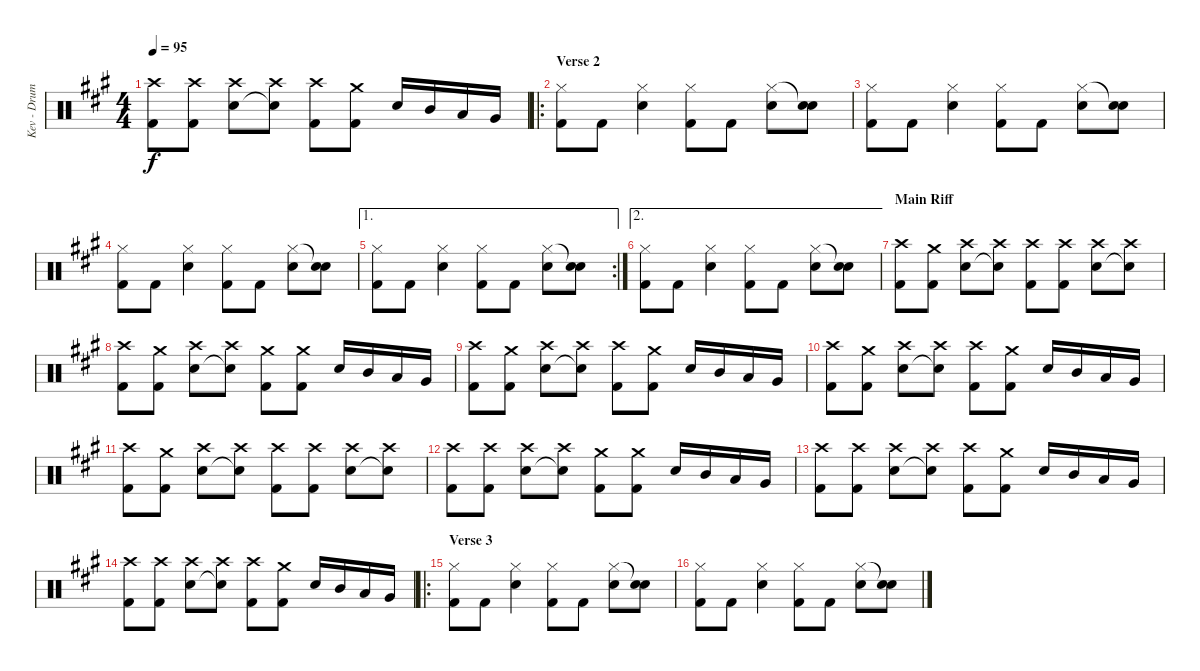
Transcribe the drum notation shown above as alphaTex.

\track ("Kev - Drums" "Kev - Drum") {instrument percussion}
\staff {score}
\articulation defaults
\ts (4 4)
\tempo 95
\clef neutral
\ks a
("Crash high (hit)" "Kick (hit) 2").8{dy f} ("Crash high (hit)" "Kick (hit) 2").8 ("Crash high (hit)" "Snare (hit) 2").8 ("Crash high (hit)" "Snare (hit)"{t}).8 ("Crash high (hit)" "Kick (hit) 2").8 ("Crash medium (hit)" "Kick (hit) 2").8 "Snare (hit) 2".16 "Mid Tom (hit)".16 "Low Tom (hit)".16 "Very Low Tom (hit)".16 |
\ro
\section ("" "Verse 2")
("Hi-Hat (closed)" "Kick (hit) 2").8 "Kick (hit) 2".8 ("Hi-Hat (closed)" "Snare (hit) 2").4 ("Hi-Hat (closed)" "Kick (hit) 2").8 "Kick (hit) 2".8 ("Hi-Hat (closed)" "Snare (hit) 2").8 ("Snare (hit)"{t} "Snare (hit) 2").8 |
("Hi-Hat (closed)" "Kick (hit) 2").8 "Kick (hit) 2".8 ("Hi-Hat (closed)" "Snare (hit) 2").4 ("Hi-Hat (closed)" "Kick (hit) 2").8 "Kick (hit) 2".8 ("Hi-Hat (closed)" "Snare (hit) 2").8 ("Snare (hit)"{t} "Snare (hit) 2").8 |
("Hi-Hat (closed)" "Kick (hit) 2").8 "Kick (hit) 2".8 ("Hi-Hat (closed)" "Snare (hit) 2").4 ("Hi-Hat (closed)" "Kick (hit) 2").8 "Kick (hit) 2".8 ("Hi-Hat (closed)" "Snare (hit) 2").8 ("Snare (hit)"{t} "Snare (hit) 2").8 |
\ae 1
\rc 2
("Hi-Hat (closed)" "Kick (hit) 2").8 "Kick (hit) 2".8 ("Hi-Hat (closed)" "Snare (hit) 2").4 ("Hi-Hat (closed)" "Kick (hit) 2").8 "Kick (hit) 2".8 ("Hi-Hat (closed)" "Snare (hit) 2").8 ("Snare (hit)"{t} "Snare (hit) 2").8 |
\ae 2
("Hi-Hat (closed)" "Kick (hit) 2").8 "Kick (hit) 2".8 ("Hi-Hat (closed)" "Snare (hit) 2").4 ("Hi-Hat (closed)" "Kick (hit) 2").8 "Kick (hit) 2".8 ("Hi-Hat (closed)" "Snare (hit) 2").8 ("Snare (hit)"{t} "Snare (hit) 2").8 |
\section ("" "Main Riff")
("Crash high (hit)" "Kick (hit) 2").8 ("Crash medium (hit)" "Kick (hit) 2").8 ("Crash high (hit)" "Snare (hit) 2").8 ("Crash high (hit)" "Snare (hit)"{t}).8 ("Crash high (hit)" "Kick (hit) 2").8 ("Crash high (hit)" "Kick (hit) 2").8 ("Crash high (hit)" "Snare (hit) 2").8 ("Crash high (hit)" "Snare (hit)"{t}).8 |
("Crash high (hit)" "Kick (hit) 2").8 ("Crash medium (hit)" "Kick (hit) 2").8 ("Crash high (hit)" "Snare (hit) 2").8 ("Crash high (hit)" "Snare (hit)"{t}).8 ("Crash medium (hit)" "Kick (hit) 2").8 ("Crash medium (hit)" "Kick (hit) 2").8 "Snare (hit) 2".16 "Mid Tom (hit)".16 "Low Tom (hit)".16 "Very Low Tom (hit)".16 |
("Crash high (hit)" "Kick (hit) 2").8 ("Crash medium (hit)" "Kick (hit) 2").8 ("Crash high (hit)" "Snare (hit) 2").8 ("Crash high (hit)" "Snare (hit)"{t}).8 ("Crash high (hit)" "Kick (hit) 2").8 ("Crash medium (hit)" "Kick (hit) 2").8 "Snare (hit) 2".16 "Mid Tom (hit)".16 "Low Tom (hit)".16 "Very Low Tom (hit)".16 |
("Crash high (hit)" "Kick (hit) 2").8 ("Crash medium (hit)" "Kick (hit) 2").8 ("Crash high (hit)" "Snare (hit) 2").8 ("Crash high (hit)" "Snare (hit)"{t}).8 ("Crash high (hit)" "Kick (hit) 2").8 ("Crash medium (hit)" "Kick (hit) 2").8 "Snare (hit) 2".16 "Mid Tom (hit)".16 "Low Tom (hit)".16 "Very Low Tom (hit)".16 |
("Crash high (hit)" "Kick (hit) 2").8 ("Crash medium (hit)" "Kick (hit) 2").8 ("Crash high (hit)" "Snare (hit) 2").8 ("Crash high (hit)" "Snare (hit)"{t}).8 ("Crash high (hit)" "Kick (hit) 2").8 ("Crash high (hit)" "Kick (hit) 2").8 ("Crash high (hit)" "Snare (hit) 2").8 ("Crash high (hit)" "Snare (hit)"{t}).8 |
("Crash high (hit)" "Kick (hit) 2").8 ("Crash high (hit)" "Kick (hit) 2").8 ("Crash high (hit)" "Snare (hit) 2").8 ("Crash high (hit)" "Snare (hit)"{t}).8 ("Crash medium (hit)" "Kick (hit) 2").8 ("Crash medium (hit)" "Kick (hit) 2").8 "Snare (hit) 2".16 "Mid Tom (hit)".16 "Low Tom (hit)".16 "Very Low Tom (hit)".16 |
("Crash high (hit)" "Kick (hit) 2").8 ("Crash high (hit)" "Kick (hit) 2").8 ("Crash high (hit)" "Snare (hit) 2").8 ("Crash high (hit)" "Snare (hit)"{t}).8 ("Crash high (hit)" "Kick (hit) 2").8 ("Crash medium (hit)" "Kick (hit) 2").8 "Snare (hit) 2".16 "Mid Tom (hit)".16 "Low Tom (hit)".16 "Very Low Tom (hit)".16 |
("Crash high (hit)" "Kick (hit) 2").8 ("Crash high (hit)" "Kick (hit) 2").8 ("Crash high (hit)" "Snare (hit) 2").8 ("Crash high (hit)" "Snare (hit)"{t}).8 ("Crash high (hit)" "Kick (hit) 2").8 ("Crash medium (hit)" "Kick (hit) 2").8 "Snare (hit) 2".16 "Mid Tom (hit)".16 "Low Tom (hit)".16 "Very Low Tom (hit)".16 |
\ro
\section ("" "Verse 3")
("Hi-Hat (closed)" "Kick (hit) 2").8 "Kick (hit) 2".8 ("Hi-Hat (closed)" "Snare (hit) 2").4 ("Hi-Hat (closed)" "Kick (hit) 2").8 "Kick (hit) 2".8 ("Hi-Hat (closed)" "Snare (hit) 2").8 ("Snare (hit)"{t} "Snare (hit) 2").8 |
("Hi-Hat (closed)" "Kick (hit) 2").8 "Kick (hit) 2".8 ("Hi-Hat (closed)" "Snare (hit) 2").4 ("Hi-Hat (closed)" "Kick (hit) 2").8 "Kick (hit) 2".8 ("Hi-Hat (closed)" "Snare (hit) 2").8 ("Snare (hit)"{t} "Snare (hit) 2").8
